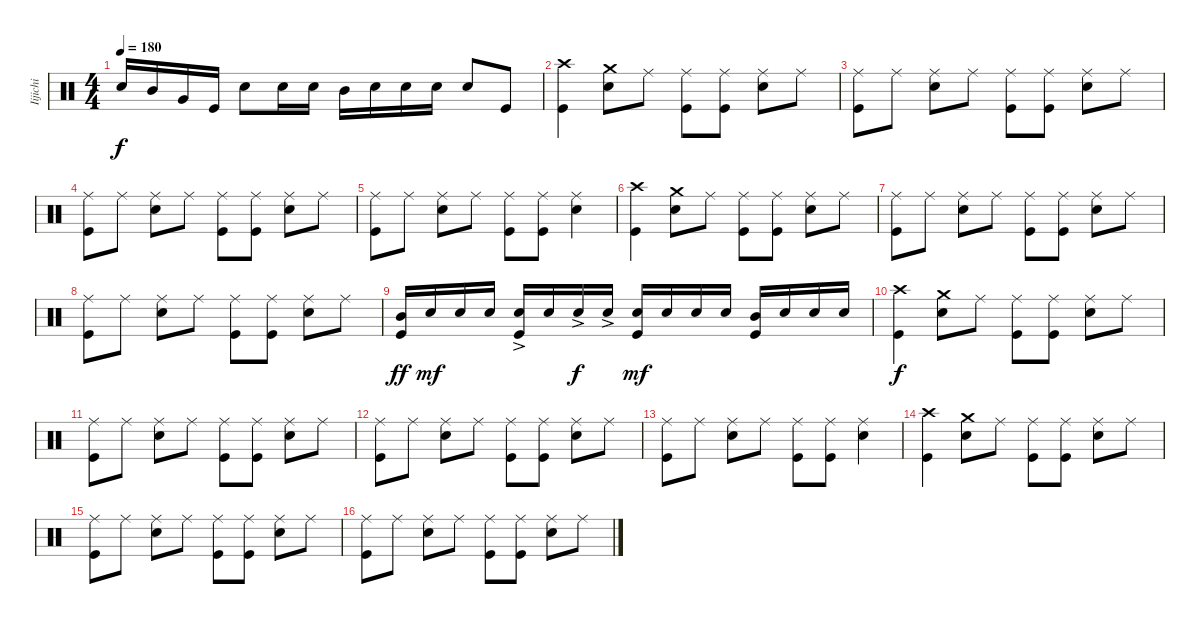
\track ("Iijichi" "Iijichi") {instrument percussion}
\staff {score}
\articulation defaults
\ts (4 4)
\tempo 180
\clef neutral
\ks c "Electric Snare (hit)".16{dy f} "Mid Tom (hit)".16 "Very Low Tom (hit)".16 "Kick (hit)".16 "Electric Snare (hit)".8 "Electric Snare (hit)".16 "Electric Snare (hit)".16 "Mid Tom (hit)".16 "Electric Snare (hit)".16 "Electric Snare (hit)".16 "Electric Snare (hit)".16 "Electric Snare (hit)".8 "Kick (hit)".8
|
("Kick (hit)" "Crash high (hit)").4 ("Electric Snare (hit)" "Crash medium (hit)").8 "Ride (middle)".8 ("Ride (middle)" "Kick (hit)").8 ("Ride (middle)" "Kick (hit)").8 ("Ride (middle)" "Electric Snare (hit)").8 "Ride (middle)".8 |
("Ride (middle)" "Kick (hit)").8 "Ride (middle)".8 ("Ride (middle)" "Electric Snare (hit)").8 "Ride (middle)".8 ("Ride (middle)" "Kick (hit)").8 ("Ride (middle)" "Kick (hit)").8 ("Ride (middle)" "Electric Snare (hit)").8 "Ride (middle)".8 |
("Ride (middle)" "Kick (hit)").8 "Ride (middle)".8 ("Ride (middle)" "Electric Snare (hit)").8 "Ride (middle)".8 ("Ride (middle)" "Kick (hit)").8 ("Ride (middle)" "Kick (hit)").8 ("Ride (middle)" "Electric Snare (hit)").8 "Ride (middle)".8 |
("Ride (middle)" "Kick (hit)").8 "Ride (middle)".8 ("Ride (middle)" "Electric Snare (hit)").8 "Ride (middle)".8 ("Ride (middle)" "Kick (hit)").8 ("Ride (middle)" "Kick (hit)").8 ("Ride (middle)" "Electric Snare (hit)").4 |
("Kick (hit)" "Crash high (hit)").4 ("Electric Snare (hit)" "Crash medium (hit)").8 "Ride (middle)".8 ("Ride (middle)" "Kick (hit)").8 ("Ride (middle)" "Kick (hit)").8 ("Ride (middle)" "Electric Snare (hit)").8 "Ride (middle)".8 |
("Ride (middle)" "Kick (hit)").8 "Ride (middle)".8 ("Ride (middle)" "Electric Snare (hit)").8 "Ride (middle)".8 ("Ride (middle)" "Kick (hit)").8 ("Ride (middle)" "Kick (hit)").8 ("Ride (middle)" "Electric Snare (hit)").8 "Ride (middle)".8 |
("Ride (middle)" "Kick (hit)").8 "Ride (middle)".8 ("Ride (middle)" "Electric Snare (hit)").8 "Ride (middle)".8 ("Ride (middle)" "Kick (hit)").8 ("Ride (middle)" "Kick (hit)").8 ("Ride (middle)" "Electric Snare (hit)").8 "Ride (middle)".8 |
("Kick (hit)" "Mid Tom (hit)").16{dy ff} "Electric Snare (hit)".16{dy mf} "Electric Snare (hit)".16 "Electric Snare (hit)".16 ("Electric Snare (hit)"{ac} "Kick (hit)").16 "Electric Snare (hit)".16 "Electric Snare (hit)"{ac}.16{dy f} "Electric Snare (hit)"{ac}.16 ("Electric Snare (hit)" "Kick (hit)").16{dy mf} "Electric Snare (hit)".16 "Electric Snare (hit)".16 "Electric Snare (hit)".16 ("Mid Tom (hit)" "Kick (hit)").16 "Electric Snare (hit)".16 "Electric Snare (hit)".16 "Electric Snare (hit)".16 |
("Kick (hit)" "Crash high (hit)").4{dy f} ("Electric Snare (hit)" "Crash medium (hit)").8 "Ride (middle)".8 ("Ride (middle)" "Kick (hit)").8 ("Ride (middle)" "Kick (hit)").8 ("Ride (middle)" "Electric Snare (hit)").8 "Ride (middle)".8 |
("Ride (middle)" "Kick (hit)").8 "Ride (middle)".8 ("Ride (middle)" "Electric Snare (hit)").8 "Ride (middle)".8 ("Ride (middle)" "Kick (hit)").8 ("Ride (middle)" "Kick (hit)").8 ("Ride (middle)" "Electric Snare (hit)").8 "Ride (middle)".8 |
("Ride (middle)" "Kick (hit)").8 "Ride (middle)".8 ("Ride (middle)" "Electric Snare (hit)").8 "Ride (middle)".8 ("Ride (middle)" "Kick (hit)").8 ("Ride (middle)" "Kick (hit)").8 ("Ride (middle)" "Electric Snare (hit)").8 "Ride (middle)".8 |
("Ride (middle)" "Kick (hit)").8 "Ride (middle)".8 ("Ride (middle)" "Electric Snare (hit)").8 "Ride (middle)".8 ("Ride (middle)" "Kick (hit)").8 ("Ride (middle)" "Kick (hit)").8 ("Ride (middle)" "Electric Snare (hit)").4 |
("Kick (hit)" "Crash high (hit)").4 ("Electric Snare (hit)" "Crash medium (hit)").8 "Ride (middle)".8 ("Ride (middle)" "Kick (hit)").8 ("Ride (middle)" "Kick (hit)").8 ("Ride (middle)" "Electric Snare (hit)").8 "Ride (middle)".8 |
("Ride (middle)" "Kick (hit)").8 "Ride (middle)".8 ("Ride (middle)" "Electric Snare (hit)").8 "Ride (middle)".8 ("Ride (middle)" "Kick (hit)").8 ("Ride (middle)" "Kick (hit)").8 ("Ride (middle)" "Electric Snare (hit)").8 "Ride (middle)".8 |
("Ride (middle)" "Kick (hit)").8 "Ride (middle)".8 ("Ride (middle)" "Electric Snare (hit)").8 "Ride (middle)".8 ("Ride (middle)" "Kick (hit)").8 ("Ride (middle)" "Kick (hit)").8 ("Ride (middle)" "Electric Snare (hit)").8 "Ride (middle)".8
